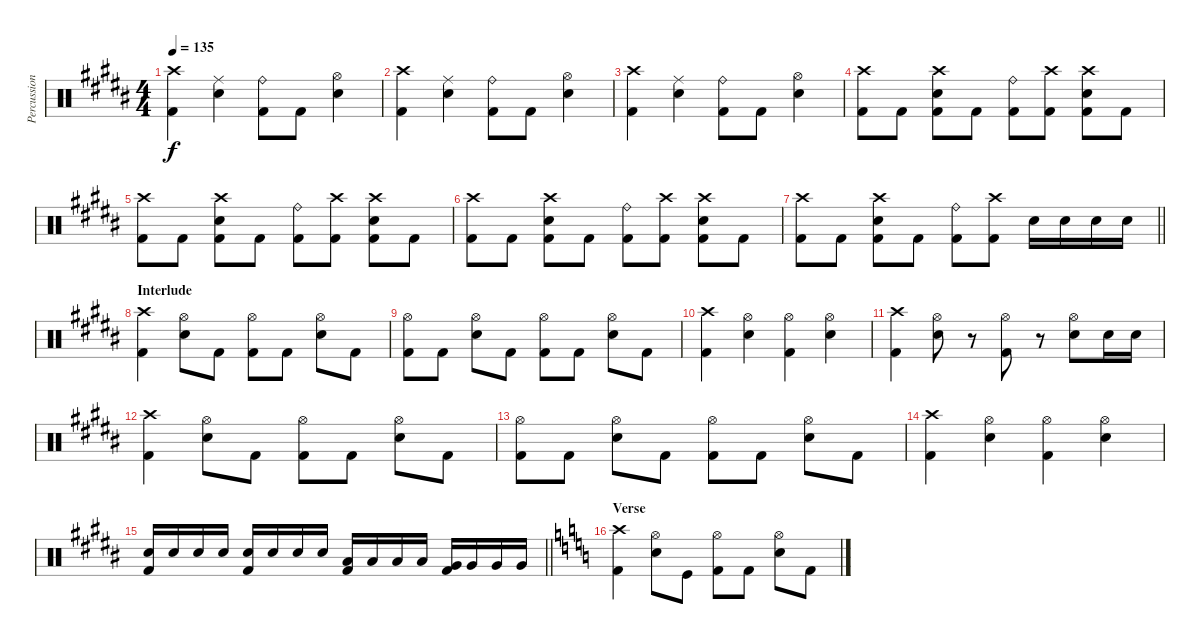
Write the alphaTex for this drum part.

\track ("Percussion" "Percussion") {instrument percussion}
\staff {score}
\articulation defaults
\ts (4 4)
\tempo 135
\clef neutral
\ks b
("Crash high (hit)" "Kick (hit) 2").4{dy f} ("Ride (middle)" "Electric Snare (hit)").4 ("Ride (bell)" "Kick (hit) 2").8 "Kick (hit) 2".8 ("Hi-Hat (open)" "Electric Snare (hit)").4 |
("Crash high (hit)" "Kick (hit) 2").4 ("Ride (middle)" "Electric Snare (hit)").4 ("Ride (bell)" "Kick (hit) 2").8 "Kick (hit) 2".8 ("Hi-Hat (open)" "Electric Snare (hit)").4 |
("Crash high (hit)" "Kick (hit) 2").4 ("Ride (middle)" "Electric Snare (hit)").4 ("Ride (bell)" "Kick (hit) 2").8 "Kick (hit) 2".8 ("Hi-Hat (open)" "Electric Snare (hit)").4 |
("Crash high (hit)" "Kick (hit) 2").8 "Kick (hit) 2".8 ("Crash high (hit)" "Electric Snare (hit)" "Kick (hit) 2").8 "Kick (hit) 2".8 ("Ride (bell)" "Kick (hit) 2").8 ("Crash high (hit)" "Kick (hit) 2").8 ("Crash high (hit)" "Electric Snare (hit)" "Kick (hit) 2").8 "Kick (hit) 2".8 |
("Crash high (hit)" "Kick (hit) 2").8 "Kick (hit) 2".8 ("Crash high (hit)" "Electric Snare (hit)" "Kick (hit) 2").8 "Kick (hit) 2".8 ("Ride (bell)" "Kick (hit) 2").8 ("Crash high (hit)" "Kick (hit) 2").8 ("Crash high (hit)" "Electric Snare (hit)" "Kick (hit) 2").8 "Kick (hit) 2".8 |
("Crash high (hit)" "Kick (hit) 2").8 "Kick (hit) 2".8 ("Crash high (hit)" "Electric Snare (hit)" "Kick (hit) 2").8 "Kick (hit) 2".8 ("Ride (bell)" "Kick (hit) 2").8 ("Crash high (hit)" "Kick (hit) 2").8 ("Crash high (hit)" "Electric Snare (hit)" "Kick (hit) 2").8 "Kick (hit) 2".8 |
\barLineRight lightlight
("Crash high (hit)" "Kick (hit) 2").8 "Kick (hit) 2".8 ("Crash high (hit)" "Electric Snare (hit)" "Kick (hit) 2").8 "Kick (hit) 2".8 ("Ride (bell)" "Kick (hit) 2").8 ("Crash high (hit)" "Kick (hit) 2").8 "Electric Snare (hit)".16 "Electric Snare (hit)".16 "Electric Snare (hit)".16 "Electric Snare (hit)".16 |
\section ("" "Interlude")
("Crash high (hit)" "Kick (hit) 2").4 ("Electric Snare (hit)" "Hi-Hat (open)").8 "Kick (hit) 2".8 ("Hi-Hat (open)" "Kick (hit) 2").8 "Kick (hit) 2".8 ("Hi-Hat (open)" "Electric Snare (hit)").8 "Kick (hit) 2".8 |
("Hi-Hat (open)" "Kick (hit) 2").8 "Kick (hit) 2".8 ("Electric Snare (hit)" "Hi-Hat (open)").8 "Kick (hit) 2".8 ("Hi-Hat (open)" "Kick (hit) 2").8 "Kick (hit) 2".8 ("Hi-Hat (open)" "Electric Snare (hit)").8 "Kick (hit) 2".8 |
("Crash high (hit)" "Kick (hit) 2").4 ("Hi-Hat (open)" "Electric Snare (hit)").4 ("Hi-Hat (open)" "Kick (hit) 2").4 ("Hi-Hat (open)" "Electric Snare (hit)").4 |
("Crash high (hit)" "Kick (hit) 2").4 ("Electric Snare (hit)" "Hi-Hat (open)").8 r.8 ("Hi-Hat (open)" "Kick (hit) 2").8 r.8 ("Hi-Hat (open)" "Electric Snare (hit)").8 "Electric Snare (hit)".16 "Electric Snare (hit)".16 |
("Crash high (hit)" "Kick (hit) 2").4 ("Electric Snare (hit)" "Hi-Hat (open)").8 "Kick (hit) 2".8 ("Hi-Hat (open)" "Kick (hit) 2").8 "Kick (hit) 2".8 ("Hi-Hat (open)" "Electric Snare (hit)").8 "Kick (hit) 2".8 |
("Hi-Hat (open)" "Kick (hit) 2").8 "Kick (hit) 2".8 ("Electric Snare (hit)" "Hi-Hat (open)").8 "Kick (hit) 2".8 ("Hi-Hat (open)" "Kick (hit) 2").8 "Kick (hit) 2".8 ("Hi-Hat (open)" "Electric Snare (hit)").8 "Kick (hit) 2".8 |
("Crash high (hit)" "Kick (hit) 2").4 ("Hi-Hat (open)" "Electric Snare (hit)").4 ("Hi-Hat (open)" "Kick (hit) 2").4 ("Hi-Hat (open)" "Electric Snare (hit)").4 |
\barLineRight lightlight
("Electric Snare (hit)" "Kick (hit) 2").16 "Electric Snare (hit)".16 "Electric Snare (hit)".16 "Electric Snare (hit)".16 ("Electric Snare (hit)" "Kick (hit) 2").16 "Electric Snare (hit)".16 "Electric Snare (hit)".16 "Electric Snare (hit)".16 ("Low Tom (hit)" "Kick (hit) 2").16 "Low Tom (hit)".16 "Low Tom (hit)".16 "Low Tom (hit)".16 ("Very Low Tom (hit)" "Kick (hit) 2").16 "Very Low Tom (hit)".16 "Very Low Tom (hit)".16 "Very Low Tom (hit)".16 |
\section ("" "Verse")
\ks c
("Crash high (hit)" "Kick (hit) 2").4 ("Electric Snare (hit)" "Hi-Hat (open)").8 "Kick (hit)".8 ("Hi-Hat (open)" "Kick (hit) 2").8 "Kick (hit) 2".8 ("Electric Snare (hit)" "Hi-Hat (open)").8 "Kick (hit) 2".8
